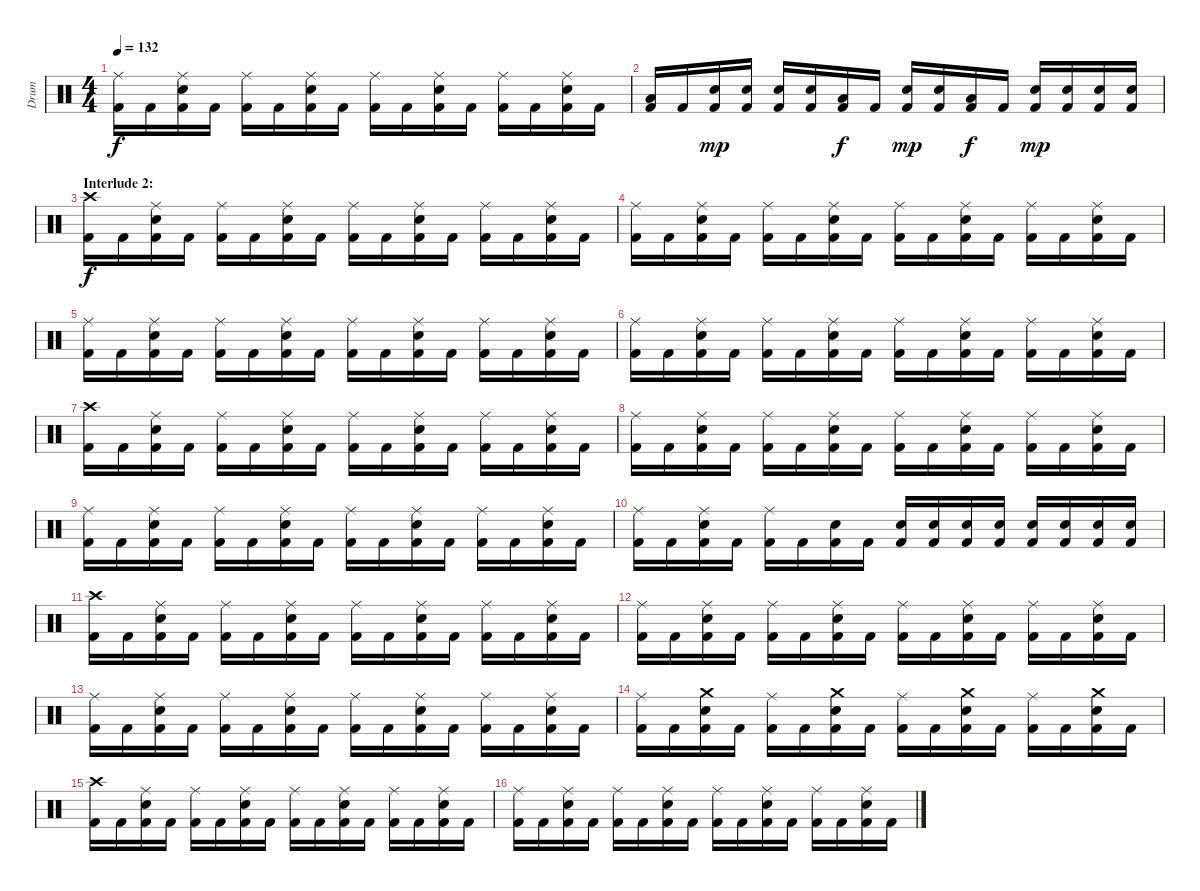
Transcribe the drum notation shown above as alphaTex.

\track ("Drum" "Drum") {instrument percussion}
\staff {score}
\articulation defaults
\ts (4 4)
\tempo 132
\clef neutral
\ks c
("Kick (hit) 2" "Ride (middle)").16{dy f} "Kick (hit) 2".16 ("Kick (hit) 2" "Snare (hit) 2" "Ride (middle)").16 "Kick (hit) 2".16 ("Kick (hit) 2" "Ride (middle)").16 "Kick (hit) 2".16 ("Kick (hit) 2" "Snare (hit) 2" "Ride (middle)").16 "Kick (hit) 2".16 ("Kick (hit) 2" "Ride (middle)").16 "Kick (hit) 2".16 ("Kick (hit) 2" "Snare (hit) 2" "Ride (middle)").16 "Kick (hit) 2".16 ("Kick (hit) 2" "Ride (middle)").16 "Kick (hit) 2".16 ("Kick (hit) 2" "Snare (hit) 2" "Ride (middle)").16 "Kick (hit) 2".16 |
("Kick (hit) 2" "Low Tom (hit)").16 "Kick (hit) 2".16 ("Kick (hit) 2" "Snare (hit) 2").16{dy mp} ("Kick (hit) 2" "Snare (hit) 2").16 ("Kick (hit) 2" "Snare (hit) 2").16 ("Kick (hit) 2" "Snare (hit) 2").16 ("Kick (hit) 2" "Low Tom (hit)").16{dy f} "Kick (hit) 2".16 ("Kick (hit) 2" "Snare (hit) 2").16{dy mp} ("Kick (hit) 2" "Snare (hit) 2").16 ("Kick (hit) 2" "Low Tom (hit)").16{dy f} "Kick (hit) 2".16 ("Kick (hit) 2" "Snare (hit) 2").16{dy mp} ("Kick (hit) 2" "Snare (hit) 2").16 ("Kick (hit) 2" "Snare (hit) 2").16 ("Kick (hit) 2" "Snare (hit) 2").16 |
\section ("" "Interlude 2:")
("Kick (hit) 2" "Crash high (hit)").16{dy f} "Kick (hit) 2".16 ("Kick (hit) 2" "Snare (hit) 2" "Ride (middle)").16 "Kick (hit) 2".16 ("Kick (hit) 2" "Ride (middle)").16 "Kick (hit) 2".16 ("Kick (hit) 2" "Snare (hit) 2" "Ride (middle)").16 "Kick (hit) 2".16 ("Kick (hit) 2" "Ride (middle)").16 "Kick (hit) 2".16 ("Kick (hit) 2" "Snare (hit) 2" "Ride (middle)").16 "Kick (hit) 2".16 ("Kick (hit) 2" "Ride (middle)").16 "Kick (hit) 2".16 ("Kick (hit) 2" "Snare (hit) 2" "Ride (middle)").16 "Kick (hit) 2".16 |
("Kick (hit) 2" "Ride (middle)").16 "Kick (hit) 2".16 ("Kick (hit) 2" "Snare (hit) 2" "Ride (middle)").16 "Kick (hit) 2".16 ("Kick (hit) 2" "Ride (middle)").16 "Kick (hit) 2".16 ("Kick (hit) 2" "Snare (hit) 2" "Ride (middle)").16 "Kick (hit) 2".16 ("Kick (hit) 2" "Ride (middle)").16 "Kick (hit) 2".16 ("Kick (hit) 2" "Snare (hit) 2" "Ride (middle)").16 "Kick (hit) 2".16 ("Kick (hit) 2" "Ride (middle)").16 "Kick (hit) 2".16 ("Kick (hit) 2" "Snare (hit) 2" "Ride (middle)").16 "Kick (hit) 2".16 |
("Kick (hit) 2" "Ride (middle)").16 "Kick (hit) 2".16 ("Kick (hit) 2" "Snare (hit) 2" "Ride (middle)").16 "Kick (hit) 2".16 ("Kick (hit) 2" "Ride (middle)").16 "Kick (hit) 2".16 ("Kick (hit) 2" "Snare (hit) 2" "Ride (middle)").16 "Kick (hit) 2".16 ("Kick (hit) 2" "Ride (middle)").16 "Kick (hit) 2".16 ("Kick (hit) 2" "Snare (hit) 2" "Ride (middle)").16 "Kick (hit) 2".16 ("Kick (hit) 2" "Ride (middle)").16 "Kick (hit) 2".16 ("Kick (hit) 2" "Snare (hit) 2" "Ride (middle)").16 "Kick (hit) 2".16 |
("Kick (hit) 2" "Ride (middle)").16 "Kick (hit) 2".16 ("Kick (hit) 2" "Snare (hit) 2" "Ride (middle)").16 "Kick (hit) 2".16 ("Kick (hit) 2" "Ride (middle)").16 "Kick (hit) 2".16 ("Kick (hit) 2" "Snare (hit) 2" "Ride (middle)").16 "Kick (hit) 2".16 ("Kick (hit) 2" "Ride (middle)").16 "Kick (hit) 2".16 ("Kick (hit) 2" "Snare (hit) 2" "Ride (middle)").16 "Kick (hit) 2".16 ("Kick (hit) 2" "Ride (middle)").16 "Kick (hit) 2".16 ("Kick (hit) 2" "Snare (hit) 2" "Ride (middle)").16 "Kick (hit) 2".16 |
("Kick (hit) 2" "Crash high (hit)").16 "Kick (hit) 2".16 ("Kick (hit) 2" "Snare (hit) 2" "Ride (middle)").16 "Kick (hit) 2".16 ("Kick (hit) 2" "Ride (middle)").16 "Kick (hit) 2".16 ("Kick (hit) 2" "Snare (hit) 2" "Ride (middle)").16 "Kick (hit) 2".16 ("Kick (hit) 2" "Ride (middle)").16 "Kick (hit) 2".16 ("Kick (hit) 2" "Snare (hit) 2" "Ride (middle)").16 "Kick (hit) 2".16 ("Kick (hit) 2" "Ride (middle)").16 "Kick (hit) 2".16 ("Kick (hit) 2" "Snare (hit) 2" "Ride (middle)").16 "Kick (hit) 2".16 |
("Kick (hit) 2" "Ride (middle)").16 "Kick (hit) 2".16 ("Kick (hit) 2" "Snare (hit) 2" "Ride (middle)").16 "Kick (hit) 2".16 ("Kick (hit) 2" "Ride (middle)").16 "Kick (hit) 2".16 ("Kick (hit) 2" "Snare (hit) 2" "Ride (middle)").16 "Kick (hit) 2".16 ("Kick (hit) 2" "Ride (middle)").16 "Kick (hit) 2".16 ("Kick (hit) 2" "Snare (hit) 2" "Ride (middle)").16 "Kick (hit) 2".16 ("Kick (hit) 2" "Ride (middle)").16 "Kick (hit) 2".16 ("Kick (hit) 2" "Snare (hit) 2" "Ride (middle)").16 "Kick (hit) 2".16 |
("Kick (hit) 2" "Ride (middle)").16 "Kick (hit) 2".16 ("Kick (hit) 2" "Snare (hit) 2" "Ride (middle)").16 "Kick (hit) 2".16 ("Kick (hit) 2" "Ride (middle)").16 "Kick (hit) 2".16 ("Kick (hit) 2" "Snare (hit) 2" "Ride (middle)").16 "Kick (hit) 2".16 ("Kick (hit) 2" "Ride (middle)").16 "Kick (hit) 2".16 ("Kick (hit) 2" "Snare (hit) 2" "Ride (middle)").16 "Kick (hit) 2".16 ("Kick (hit) 2" "Ride (middle)").16 "Kick (hit) 2".16 ("Kick (hit) 2" "Snare (hit) 2" "Ride (middle)").16 "Kick (hit) 2".16 |
("Kick (hit) 2" "Ride (middle)").16 "Kick (hit) 2".16 ("Kick (hit) 2" "Snare (hit) 2" "Ride (middle)").16 "Kick (hit) 2".16 ("Kick (hit) 2" "Ride (middle)").16 "Kick (hit) 2".16 ("Kick (hit) 2" "Snare (hit) 2").16 "Kick (hit) 2".16 ("Kick (hit) 2" "Snare (hit) 2").16 ("Kick (hit) 2" "Snare (hit) 2").16 ("Kick (hit) 2" "Snare (hit) 2").16 ("Kick (hit) 2" "Snare (hit) 2").16 ("Kick (hit) 2" "Snare (hit) 2").16 ("Kick (hit) 2" "Snare (hit) 2").16 ("Kick (hit) 2" "Snare (hit) 2").16 ("Kick (hit) 2" "Snare (hit) 2").16 |
("Kick (hit) 2" "Crash high (hit)").16 "Kick (hit) 2".16 ("Kick (hit) 2" "Snare (hit) 2" "Ride (middle)").16 "Kick (hit) 2".16 ("Kick (hit) 2" "Ride (middle)").16 "Kick (hit) 2".16 ("Kick (hit) 2" "Snare (hit) 2" "Ride (middle)").16 "Kick (hit) 2".16 ("Kick (hit) 2" "Ride (middle)").16 "Kick (hit) 2".16 ("Kick (hit) 2" "Snare (hit) 2" "Ride (middle)").16 "Kick (hit) 2".16 ("Kick (hit) 2" "Ride (middle)").16 "Kick (hit) 2".16 ("Kick (hit) 2" "Snare (hit) 2" "Ride (middle)").16 "Kick (hit) 2".16 |
("Kick (hit) 2" "Ride (middle)").16 "Kick (hit) 2".16 ("Kick (hit) 2" "Snare (hit) 2" "Ride (middle)").16 "Kick (hit) 2".16 ("Kick (hit) 2" "Ride (middle)").16 "Kick (hit) 2".16 ("Kick (hit) 2" "Snare (hit) 2" "Ride (middle)").16 "Kick (hit) 2".16 ("Kick (hit) 2" "Ride (middle)").16 "Kick (hit) 2".16 ("Kick (hit) 2" "Snare (hit) 2" "Ride (middle)").16 "Kick (hit) 2".16 ("Kick (hit) 2" "Ride (middle)").16 "Kick (hit) 2".16 ("Kick (hit) 2" "Snare (hit) 2" "Ride (middle)").16 "Kick (hit) 2".16 |
("Kick (hit) 2" "Ride (middle)").16 "Kick (hit) 2".16 ("Kick (hit) 2" "Snare (hit) 2" "Ride (middle)").16 "Kick (hit) 2".16 ("Kick (hit) 2" "Ride (middle)").16 "Kick (hit) 2".16 ("Kick (hit) 2" "Snare (hit) 2" "Ride (middle)").16 "Kick (hit) 2".16 ("Kick (hit) 2" "Ride (middle)").16 "Kick (hit) 2".16 ("Kick (hit) 2" "Snare (hit) 2" "Ride (middle)").16 "Kick (hit) 2".16 ("Kick (hit) 2" "Ride (middle)").16 "Kick (hit) 2".16 ("Kick (hit) 2" "Snare (hit) 2" "Ride (middle)").16 "Kick (hit) 2".16 |
("Kick (hit) 2" "Ride (middle)").16 "Kick (hit) 2".16 ("Kick (hit) 2" "Snare (hit) 2" "Crash medium (hit)").16 "Kick (hit) 2".16 ("Kick (hit) 2" "Ride (middle)").16 "Kick (hit) 2".16 ("Kick (hit) 2" "Snare (hit) 2" "Crash medium (hit)").16 "Kick (hit) 2".16 ("Kick (hit) 2" "Ride (middle)").16 "Kick (hit) 2".16 ("Kick (hit) 2" "Snare (hit) 2" "Crash medium (hit)").16 "Kick (hit) 2".16 ("Kick (hit) 2" "Ride (middle)").16 "Kick (hit) 2".16 ("Kick (hit) 2" "Snare (hit) 2" "Crash medium (hit)").16 "Kick (hit) 2".16 |
("Kick (hit) 2" "Crash high (hit)").16 "Kick (hit) 2".16 ("Kick (hit) 2" "Snare (hit) 2" "Ride (middle)").16 "Kick (hit) 2".16 ("Kick (hit) 2" "Ride (middle)").16 "Kick (hit) 2".16 ("Kick (hit) 2" "Snare (hit) 2" "Ride (middle)").16 "Kick (hit) 2".16 ("Kick (hit) 2" "Ride (middle)").16 "Kick (hit) 2".16 ("Kick (hit) 2" "Snare (hit) 2" "Ride (middle)").16 "Kick (hit) 2".16 ("Kick (hit) 2" "Ride (middle)").16 "Kick (hit) 2".16 ("Kick (hit) 2" "Snare (hit) 2" "Ride (middle)").16 "Kick (hit) 2".16 |
("Kick (hit) 2" "Ride (middle)").16 "Kick (hit) 2".16 ("Kick (hit) 2" "Snare (hit) 2" "Ride (middle)").16 "Kick (hit) 2".16 ("Kick (hit) 2" "Ride (middle)").16 "Kick (hit) 2".16 ("Kick (hit) 2" "Snare (hit) 2" "Ride (middle)").16 "Kick (hit) 2".16 ("Kick (hit) 2" "Ride (middle)").16 "Kick (hit) 2".16 ("Kick (hit) 2" "Snare (hit) 2" "Ride (middle)").16 "Kick (hit) 2".16 ("Kick (hit) 2" "Ride (middle)").16 "Kick (hit) 2".16 ("Kick (hit) 2" "Snare (hit) 2" "Ride (middle)").16 "Kick (hit) 2".16
